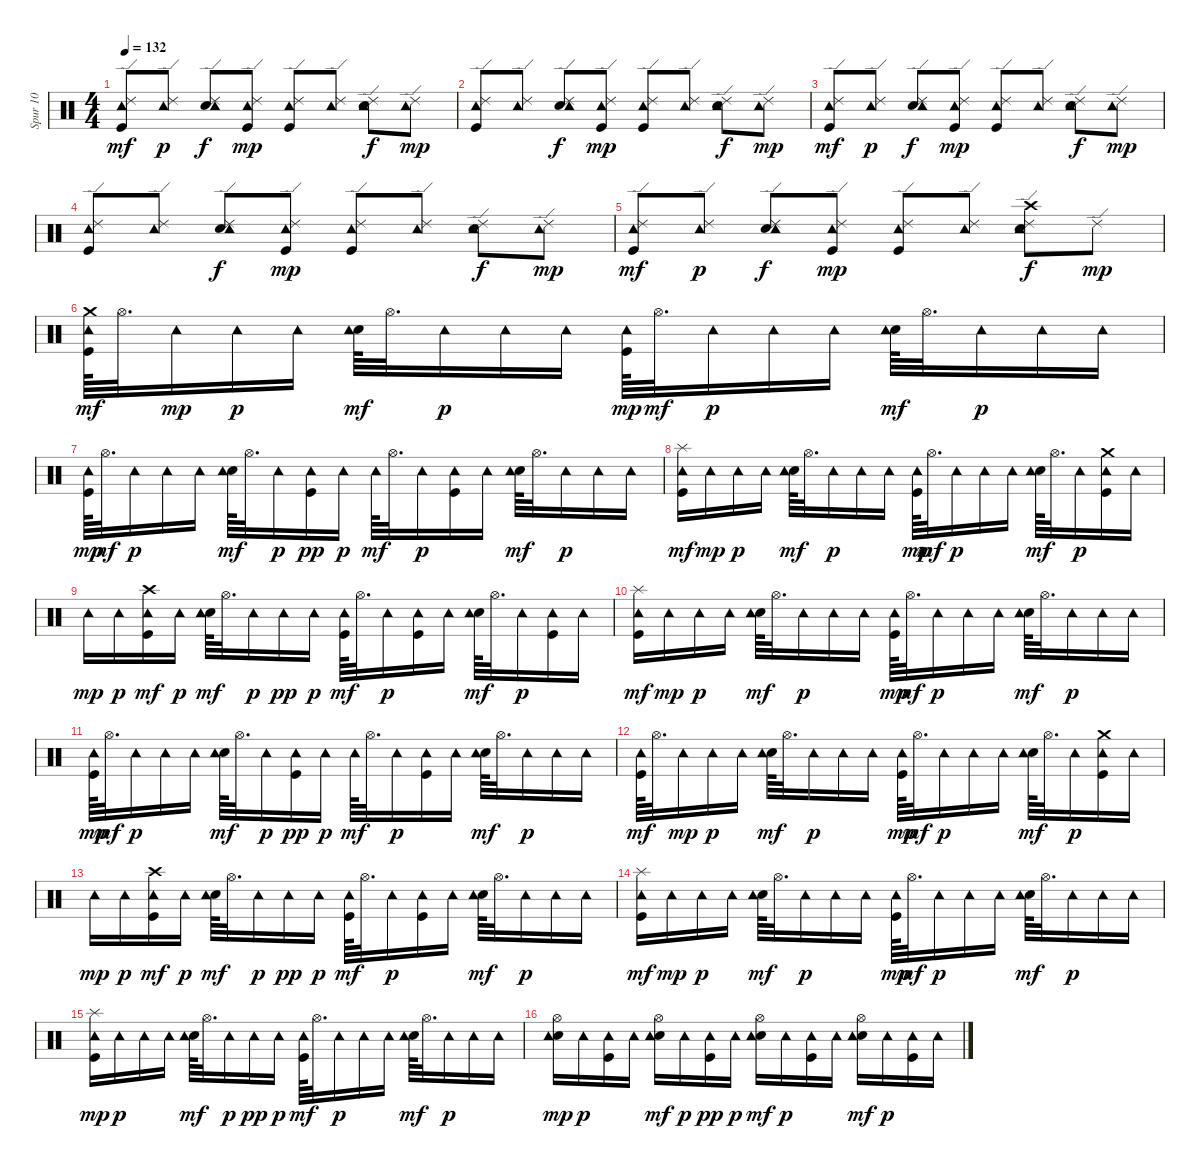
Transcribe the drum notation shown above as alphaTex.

\track ("Spur 10" "Spur 10") {instrument percussion}
\staff {score}
\articulation defaults
\ts (4 4)
\tempo 132
\clef neutral
\ks c
("Kick (hit)" "Ride (edge) 2" "Tambourine (hit)").8{dy mf} ("Ride (edge) 2" "Tambourine (hit)").8{dy p} ("Electric Snare (hit)" "Ride (edge) 2" "Tambourine (hit)").8{dy f} ("Kick (hit)" "Ride (edge) 2" "Tambourine (hit)").8{dy mp} ("Kick (hit)" "Ride (edge) 2" "Tambourine (hit)").8 ("Ride (edge) 2" "Tambourine (hit)").8 ("Electric Snare (hit)" "Ride (edge) 2" "Tambourine (hit)").8{dy f} ("Ride (edge) 2" "Tambourine (hit)").8{dy mp} |
("Kick (hit)" "Ride (edge) 2" "Tambourine (hit)").8 ("Ride (edge) 2" "Tambourine (hit)").8 ("Electric Snare (hit)" "Ride (edge) 2" "Tambourine (hit)").8{dy f} ("Kick (hit)" "Ride (edge) 2" "Tambourine (hit)").8{dy mp} ("Kick (hit)" "Ride (edge) 2" "Tambourine (hit)").8 ("Ride (edge) 2" "Tambourine (hit)").8 ("Electric Snare (hit)" "Ride (edge) 2" "Tambourine (hit)").8{dy f} ("Ride (edge) 2" "Tambourine (hit)").8{dy mp} |
("Kick (hit)" "Ride (edge) 2" "Tambourine (hit)").8{dy mf} ("Ride (edge) 2" "Tambourine (hit)").8{dy p} ("Electric Snare (hit)" "Ride (edge) 2" "Tambourine (hit)").8{dy f} ("Kick (hit)" "Ride (edge) 2" "Tambourine (hit)").8{dy mp} ("Kick (hit)" "Ride (edge) 2" "Tambourine (hit)").8 ("Ride (edge) 2" "Tambourine (hit)").8 ("Electric Snare (hit)" "Ride (edge) 2" "Tambourine (hit)").8{dy f} ("Ride (edge) 2" "Tambourine (hit)").8{dy mp} |
("Kick (hit)" "Ride (edge) 2" "Tambourine (hit)").8 ("Ride (edge) 2" "Tambourine (hit)").8 ("Electric Snare (hit)" "Ride (edge) 2" "Tambourine (hit)").8{dy f} ("Kick (hit)" "Ride (edge) 2" "Tambourine (hit)").8{dy mp} ("Kick (hit)" "Ride (edge) 2" "Tambourine (hit)").8 ("Ride (edge) 2" "Tambourine (hit)").8 ("Electric Snare (hit)" "Ride (edge) 2" "Tambourine (hit)").8{dy f} ("Ride (edge) 2" "Tambourine (hit)").8{dy mp} |
("Kick (hit)" "Ride (edge) 2" "Tambourine (hit)").8{dy mf} ("Ride (edge) 2" "Tambourine (hit)").8{dy p} ("Electric Snare (hit)" "Ride (edge) 2" "Tambourine (hit)").8{dy f} ("Kick (hit)" "Ride (edge) 2" "Tambourine (hit)").8{dy mp} ("Kick (hit)" "Ride (edge) 2" "Tambourine (hit)").8 ("Ride (edge) 2" "Tambourine (hit)").8 ("Electric Snare (hit)" "Ride (edge) 2" "Crash high (hit)" "Tambourine (hit)").8{dy f} "Ride (edge) 2".8{dy mp} |
("Crash medium (hit)" "Kick (hit)" "Tambourine (hit)").64{dy mf} "Hi-Hat (open)".32{d} "Tambourine (hit)".16{dy mp} "Tambourine (hit)".16{dy p} "Tambourine (hit)".16 ("Electric Snare (hit)" "Tambourine (hit)").64{dy mf} "Hi-Hat (open)".32{d} "Tambourine (hit)".16{dy p} "Tambourine (hit)".16 "Tambourine (hit)".16 ("Kick (hit)" "Tambourine (hit)").64{dy mp} "Hi-Hat (open)".32{d dy mf} "Tambourine (hit)".16{dy p} "Tambourine (hit)".16 "Tambourine (hit)".16 ("Electric Snare (hit)" "Tambourine (hit)").64{dy mf} "Hi-Hat (open)".32{d} "Tambourine (hit)".16{dy p} "Tambourine (hit)".16 "Tambourine (hit)".16 |
("Kick (hit)" "Tambourine (hit)").64{dy mp} "Hi-Hat (open)".32{d dy mf} "Tambourine (hit)".16{dy p} "Tambourine (hit)".16 "Tambourine (hit)".16 ("Electric Snare (hit)" "Tambourine (hit)").64{dy mf} "Hi-Hat (open)".32{d} "Tambourine (hit)".16{dy p} ("Kick (hit)" "Tambourine (hit)").16{dy pp} "Tambourine (hit)".16{dy p} "Tambourine (hit)".64{dy mf} "Hi-Hat (open)".32{d} "Tambourine (hit)".16{dy p} ("Kick (hit)" "Tambourine (hit)").16 "Tambourine (hit)".16 ("Electric Snare (hit)" "Tambourine (hit)").64{dy mf} "Hi-Hat (open)".32{d} "Tambourine (hit)".16{dy p} "Tambourine (hit)".16 "Tambourine (hit)".16 |
("Kick (hit)" "Splash (hit)" "Tambourine (hit)").16{dy mf} "Tambourine (hit)".16{dy mp} "Tambourine (hit)".16{dy p} "Tambourine (hit)".16 ("Electric Snare (hit)" "Tambourine (hit)").64{dy mf} "Hi-Hat (open)".32{d} "Tambourine (hit)".16{dy p} "Tambourine (hit)".16 "Tambourine (hit)".16 ("Kick (hit)" "Tambourine (hit)").64{dy mp} "Hi-Hat (open)".32{d dy mf} "Tambourine (hit)".16{dy p} "Tambourine (hit)".16 "Tambourine (hit)".16 ("Electric Snare (hit)" "Tambourine (hit)").64{dy mf} "Hi-Hat (open)".32{d} "Tambourine (hit)".16{dy p} ("Kick (hit)" "Tambourine (hit)" "Crash medium (hit)").16 "Tambourine (hit)".16 |
"Tambourine (hit)".16{dy mp} "Tambourine (hit)".16{dy p} ("Kick (hit)" "Tambourine (hit)" "Crash high (hit)").16{dy mf} "Tambourine (hit)".16{dy p} ("Electric Snare (hit)" "Tambourine (hit)").64{dy mf} "Hi-Hat (open)".32{d} "Tambourine (hit)".16{dy p} "Tambourine (hit)".16{dy pp} "Tambourine (hit)".16{dy p} ("Kick (hit)" "Tambourine (hit)").64{dy mf} "Hi-Hat (open)".32{d} "Tambourine (hit)".16{dy p} ("Kick (hit)" "Tambourine (hit)").16 "Tambourine (hit)".16 ("Electric Snare (hit)" "Tambourine (hit)").64{dy mf} "Hi-Hat (open)".32{d} "Tambourine (hit)".16{dy p} ("Kick (hit)" "Tambourine (hit)").16 "Tambourine (hit)".16 |
("Kick (hit)" "Splash (hit)" "Tambourine (hit)").16{dy mf} "Tambourine (hit)".16{dy mp} "Tambourine (hit)".16{dy p} "Tambourine (hit)".16 ("Electric Snare (hit)" "Tambourine (hit)").64{dy mf} "Hi-Hat (open)".32{d} "Tambourine (hit)".16{dy p} "Tambourine (hit)".16 "Tambourine (hit)".16 ("Kick (hit)" "Tambourine (hit)").64{dy mp} "Hi-Hat (open)".32{d dy mf} "Tambourine (hit)".16{dy p} "Tambourine (hit)".16 "Tambourine (hit)".16 ("Electric Snare (hit)" "Tambourine (hit)").64{dy mf} "Hi-Hat (open)".32{d} "Tambourine (hit)".16{dy p} "Tambourine (hit)".16 "Tambourine (hit)".16 |
("Kick (hit)" "Tambourine (hit)").64{dy mp} "Hi-Hat (open)".32{d dy mf} "Tambourine (hit)".16{dy p} "Tambourine (hit)".16 "Tambourine (hit)".16 ("Electric Snare (hit)" "Tambourine (hit)").64{dy mf} "Hi-Hat (open)".32{d} "Tambourine (hit)".16{dy p} ("Kick (hit)" "Tambourine (hit)").16{dy pp} "Tambourine (hit)".16{dy p} "Tambourine (hit)".64{dy mf} "Hi-Hat (open)".32{d} "Tambourine (hit)".16{dy p} ("Kick (hit)" "Tambourine (hit)").16 "Tambourine (hit)".16 ("Electric Snare (hit)" "Tambourine (hit)").64{dy mf} "Hi-Hat (open)".32{d} "Tambourine (hit)".16{dy p} "Tambourine (hit)".16 "Tambourine (hit)".16 |
("Kick (hit)" "Tambourine (hit)").64{dy mf} "Hi-Hat (open)".32{d} "Tambourine (hit)".16{dy mp} "Tambourine (hit)".16{dy p} "Tambourine (hit)".16 ("Electric Snare (hit)" "Tambourine (hit)").64{dy mf} "Hi-Hat (open)".32{d} "Tambourine (hit)".16{dy p} "Tambourine (hit)".16 "Tambourine (hit)".16 ("Kick (hit)" "Tambourine (hit)").64{dy mp} "Hi-Hat (open)".32{d dy mf} "Tambourine (hit)".16{dy p} "Tambourine (hit)".16 "Tambourine (hit)".16 ("Electric Snare (hit)" "Tambourine (hit)").64{dy mf} "Hi-Hat (open)".32{d} "Tambourine (hit)".16{dy p} ("Kick (hit)" "Tambourine (hit)" "Crash medium (hit)").16 "Tambourine (hit)".16 |
"Tambourine (hit)".16{dy mp} "Tambourine (hit)".16{dy p} ("Kick (hit)" "Tambourine (hit)" "Crash high (hit)").16{dy mf} "Tambourine (hit)".16{dy p} ("Electric Snare (hit)" "Tambourine (hit)").64{dy mf} "Hi-Hat (open)".32{d} "Tambourine (hit)".16{dy p} "Tambourine (hit)".16{dy pp} "Tambourine (hit)".16{dy p} ("Kick (hit)" "Tambourine (hit)").64{dy mf} "Hi-Hat (open)".32{d} "Tambourine (hit)".16{dy p} ("Kick (hit)" "Tambourine (hit)").16 "Tambourine (hit)".16 ("Electric Snare (hit)" "Tambourine (hit)").64{dy mf} "Hi-Hat (open)".32{d} "Tambourine (hit)".16{dy p} "Tambourine (hit)".16 "Tambourine (hit)".16 |
("Kick (hit)" "Tambourine (hit)" "Splash (hit)").16{dy mf} "Tambourine (hit)".16{dy mp} "Tambourine (hit)".16{dy p} "Tambourine (hit)".16 ("Electric Snare (hit)" "Tambourine (hit)").64{dy mf} "Hi-Hat (open)".32{d} "Tambourine (hit)".16{dy p} "Tambourine (hit)".16 "Tambourine (hit)".16 ("Kick (hit)" "Tambourine (hit)").64{dy mp} "Hi-Hat (open)".32{d dy mf} "Tambourine (hit)".16{dy p} "Tambourine (hit)".16 "Tambourine (hit)".16 ("Electric Snare (hit)" "Tambourine (hit)").64{dy mf} "Hi-Hat (open)".32{d} "Tambourine (hit)".16{dy p} "Tambourine (hit)".16 "Tambourine (hit)".16 |
("Kick (hit)" "Tambourine (hit)" "Splash (hit)").16{dy mp} "Tambourine (hit)".16{dy p} "Tambourine (hit)".16 "Tambourine (hit)".16 ("Electric Snare (hit)" "Tambourine (hit)").64{dy mf} "Hi-Hat (open)".32{d} "Tambourine (hit)".16{dy p} "Tambourine (hit)".16{dy pp} "Tambourine (hit)".16{dy p} ("Kick (hit)" "Tambourine (hit)").64{dy mf} "Hi-Hat (open)".32{d} "Tambourine (hit)".16{dy p} "Tambourine (hit)".16 "Tambourine (hit)".16 ("Electric Snare (hit)" "Tambourine (hit)").64{dy mf} "Hi-Hat (open)".32{d} "Tambourine (hit)".16{dy p} "Tambourine (hit)".16 "Tambourine (hit)".16 |
("Electric Snare (hit)" "Hi-Hat (open)" "Tambourine (hit)").16{dy mp} "Tambourine (hit)".16{dy p} ("Kick (hit)" "Tambourine (hit)").16 "Tambourine (hit)".16 ("Electric Snare (hit)" "Hi-Hat (open)" "Tambourine (hit)").16{dy mf} "Tambourine (hit)".16{dy p} ("Kick (hit)" "Tambourine (hit)").16{dy pp} "Tambourine (hit)".16{dy p} ("Electric Snare (hit)" "Tambourine (hit)" "Hi-Hat (open)").16{dy mf} "Tambourine (hit)".16{dy p} ("Kick (hit)" "Tambourine (hit)").16 "Tambourine (hit)".16 ("Electric Snare (hit)" "Hi-Hat (open)" "Tambourine (hit)").16{dy mf} "Tambourine (hit)".16{dy p} ("Kick (hit)" "Tambourine (hit)").16 "Tambourine (hit)".16
